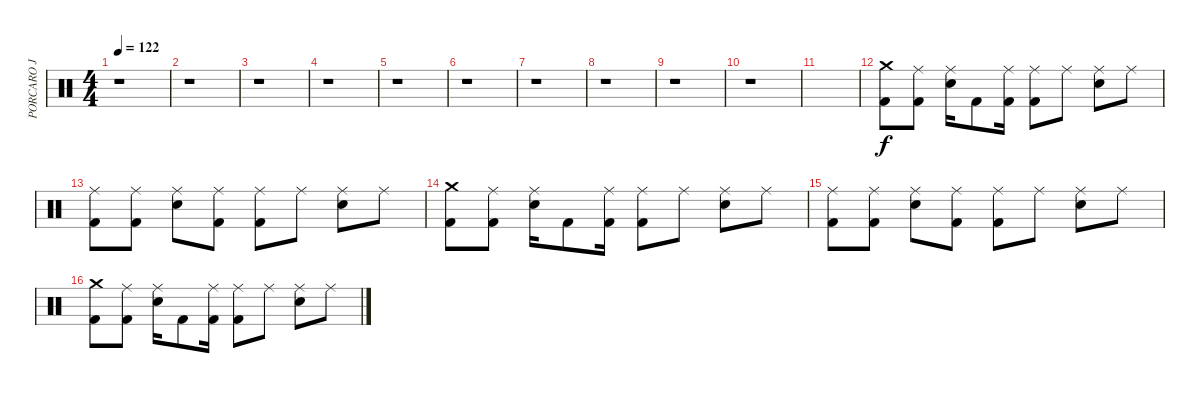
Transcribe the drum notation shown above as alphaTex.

\track ("PORCARO J" "PORCARO J") {instrument percussion}
\staff {score}
\articulation defaults
\ts (4 4)
\tempo 122
\clef neutral
\ks c
r.1{dy f} |
r.1 |
r.1 |
r.1 |
r.1 |
r.1 |
r.1 |
r.1 |
r.1 |
r.1 |
|
("Crash medium (hit)" "Kick (hit) 2").8 ("Ride (middle)" "Kick (hit) 2").8 ("Ride (middle)" "Electric Snare (hit)").16 "Kick (hit) 2".8 ("Ride (middle)" "Kick (hit) 2").16 ("Ride (middle)" "Kick (hit) 2").8 "Ride (middle)".8 ("Ride (middle)" "Electric Snare (hit)").8 "Ride (middle)".8 |
("Ride (middle)" "Kick (hit) 2").8 ("Ride (middle)" "Kick (hit) 2").8 ("Ride (middle)" "Electric Snare (hit)").8 ("Ride (middle)" "Kick (hit) 2").8 ("Ride (middle)" "Kick (hit) 2").8 "Ride (middle)".8 ("Ride (middle)" "Electric Snare (hit)").8 "Ride (middle)".8 |
("Crash medium (hit)" "Kick (hit) 2").8 ("Ride (middle)" "Kick (hit) 2").8 ("Ride (middle)" "Electric Snare (hit)").16 "Kick (hit) 2".8 ("Ride (middle)" "Kick (hit) 2").16 ("Ride (middle)" "Kick (hit) 2").8 "Ride (middle)".8 ("Ride (middle)" "Electric Snare (hit)").8 "Ride (middle)".8 |
("Ride (middle)" "Kick (hit) 2").8 ("Ride (middle)" "Kick (hit) 2").8 ("Ride (middle)" "Electric Snare (hit)").8 ("Ride (middle)" "Kick (hit) 2").8 ("Ride (middle)" "Kick (hit) 2").8 "Ride (middle)".8 ("Ride (middle)" "Electric Snare (hit)").8 "Ride (middle)".8 |
("Crash medium (hit)" "Kick (hit) 2").8 ("Ride (middle)" "Kick (hit) 2").8 ("Ride (middle)" "Electric Snare (hit)").16 "Kick (hit) 2".8 ("Ride (middle)" "Kick (hit) 2").16 ("Ride (middle)" "Kick (hit) 2").8 "Ride (middle)".8 ("Ride (middle)" "Electric Snare (hit)").8 "Ride (middle)".8
